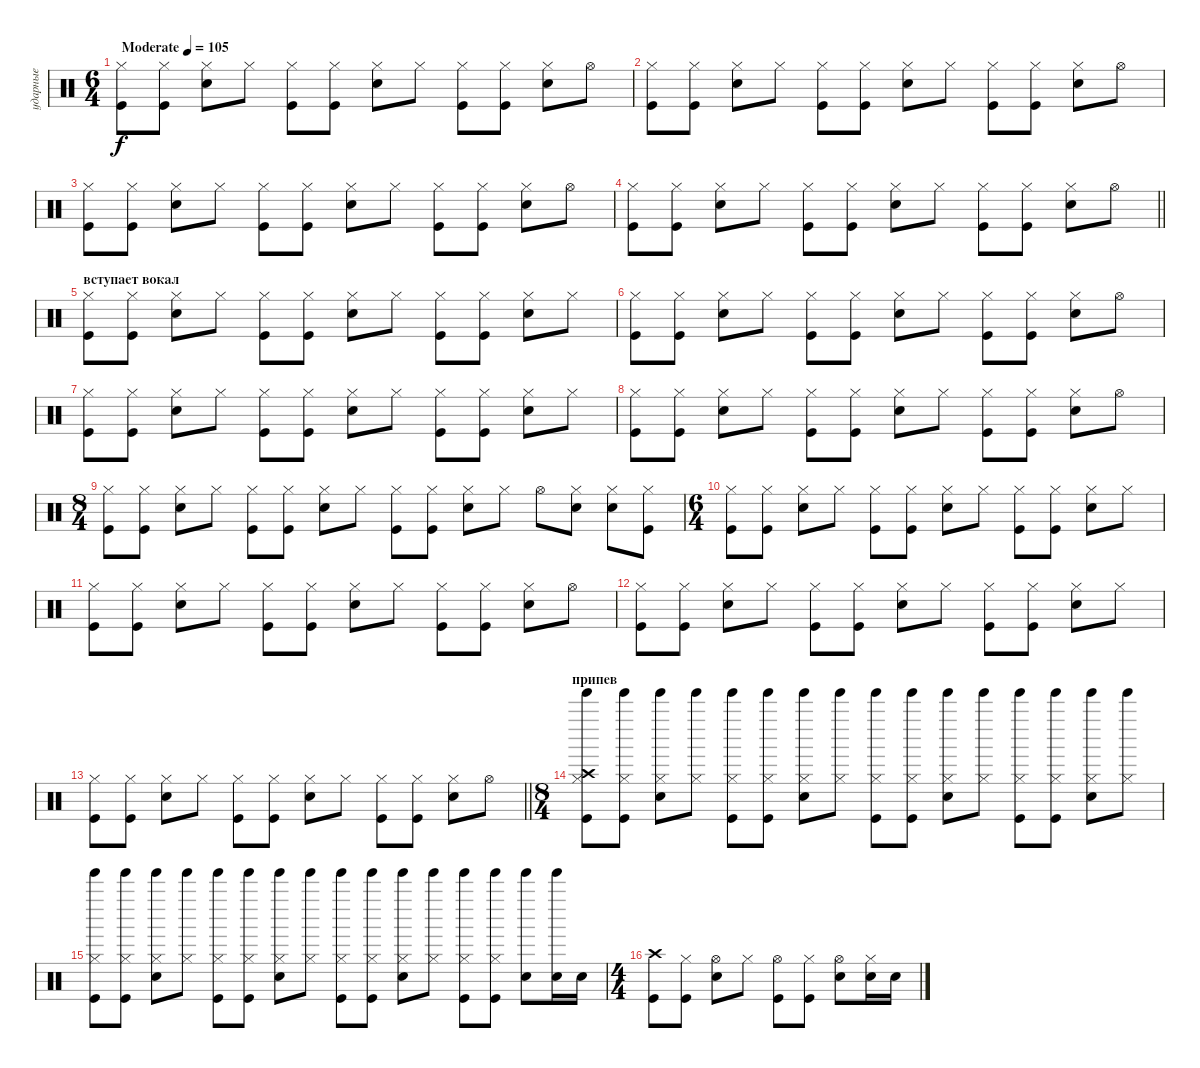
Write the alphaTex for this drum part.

\track ("ударные" "ударные") {instrument percussion}
\staff {score}
\articulation defaults
\ts (6 4)
\tempo (105 "Moderate")
\clef neutral
\ks c
("Hi-Hat (closed)" "Kick (hit)").8{dy f} ("Hi-Hat (closed)" "Kick (hit)").8 ("Hi-Hat (closed)" "Snare (hit) 2").8 "Hi-Hat (closed)".8 ("Hi-Hat (closed)" "Kick (hit)").8 ("Hi-Hat (closed)" "Kick (hit)").8 ("Hi-Hat (closed)" "Snare (hit) 2").8 "Hi-Hat (closed)".8 ("Hi-Hat (closed)" "Kick (hit)").8 ("Hi-Hat (closed)" "Kick (hit)").8 ("Hi-Hat (closed)" "Snare (hit) 2").8 "Hi-Hat (open)".8 |
("Hi-Hat (closed)" "Kick (hit)").8 ("Hi-Hat (closed)" "Kick (hit)").8 ("Hi-Hat (closed)" "Snare (hit) 2").8 "Hi-Hat (closed)".8 ("Hi-Hat (closed)" "Kick (hit)").8 ("Hi-Hat (closed)" "Kick (hit)").8 ("Hi-Hat (closed)" "Snare (hit) 2").8 "Hi-Hat (closed)".8 ("Hi-Hat (closed)" "Kick (hit)").8 ("Hi-Hat (closed)" "Kick (hit)").8 ("Hi-Hat (closed)" "Snare (hit) 2").8 "Hi-Hat (open)".8 |
("Hi-Hat (closed)" "Kick (hit)").8 ("Hi-Hat (closed)" "Kick (hit)").8 ("Hi-Hat (closed)" "Snare (hit) 2").8 "Hi-Hat (closed)".8 ("Hi-Hat (closed)" "Kick (hit)").8 ("Hi-Hat (closed)" "Kick (hit)").8 ("Hi-Hat (closed)" "Snare (hit) 2").8 "Hi-Hat (closed)".8 ("Hi-Hat (closed)" "Kick (hit)").8 ("Hi-Hat (closed)" "Kick (hit)").8 ("Hi-Hat (closed)" "Snare (hit) 2").8 "Hi-Hat (open)".8 |
\barLineRight lightlight
("Hi-Hat (closed)" "Kick (hit)").8 ("Hi-Hat (closed)" "Kick (hit)").8 ("Hi-Hat (closed)" "Snare (hit) 2").8 "Hi-Hat (closed)".8 ("Hi-Hat (closed)" "Kick (hit)").8 ("Hi-Hat (closed)" "Kick (hit)").8 ("Hi-Hat (closed)" "Snare (hit) 2").8 "Hi-Hat (closed)".8 ("Hi-Hat (closed)" "Kick (hit)").8 ("Hi-Hat (closed)" "Kick (hit)").8 ("Hi-Hat (closed)" "Snare (hit) 2").8 "Hi-Hat (open)".8 |
\section ("" "вступает вокал")
("Hi-Hat (closed)" "Kick (hit)").8 ("Hi-Hat (closed)" "Kick (hit)").8 ("Hi-Hat (closed)" "Snare (hit) 2").8 "Hi-Hat (closed)".8 ("Hi-Hat (closed)" "Kick (hit)").8 ("Hi-Hat (closed)" "Kick (hit)").8 ("Hi-Hat (closed)" "Snare (hit) 2").8 "Hi-Hat (closed)".8 ("Hi-Hat (closed)" "Kick (hit)").8 ("Hi-Hat (closed)" "Kick (hit)").8 ("Hi-Hat (closed)" "Snare (hit) 2").8 "Hi-Hat (closed)".8 |
("Hi-Hat (closed)" "Kick (hit)").8 ("Hi-Hat (closed)" "Kick (hit)").8 ("Hi-Hat (closed)" "Snare (hit) 2").8 "Hi-Hat (closed)".8 ("Hi-Hat (closed)" "Kick (hit)").8 ("Hi-Hat (closed)" "Kick (hit)").8 ("Hi-Hat (closed)" "Snare (hit) 2").8 "Hi-Hat (closed)".8 ("Hi-Hat (closed)" "Kick (hit)").8 ("Hi-Hat (closed)" "Kick (hit)").8 ("Hi-Hat (closed)" "Snare (hit) 2").8 "Hi-Hat (open)".8 |
("Hi-Hat (closed)" "Kick (hit)").8 ("Hi-Hat (closed)" "Kick (hit)").8 ("Hi-Hat (closed)" "Snare (hit) 2").8 "Hi-Hat (closed)".8 ("Hi-Hat (closed)" "Kick (hit)").8 ("Hi-Hat (closed)" "Kick (hit)").8 ("Hi-Hat (closed)" "Snare (hit) 2").8 "Hi-Hat (closed)".8 ("Hi-Hat (closed)" "Kick (hit)").8 ("Hi-Hat (closed)" "Kick (hit)").8 ("Hi-Hat (closed)" "Snare (hit) 2").8 "Hi-Hat (closed)".8 |
("Hi-Hat (closed)" "Kick (hit)").8 ("Hi-Hat (closed)" "Kick (hit)").8 ("Hi-Hat (closed)" "Snare (hit) 2").8 "Hi-Hat (closed)".8 ("Hi-Hat (closed)" "Kick (hit)").8 ("Hi-Hat (closed)" "Kick (hit)").8 ("Hi-Hat (closed)" "Snare (hit) 2").8 "Hi-Hat (closed)".8 ("Hi-Hat (closed)" "Kick (hit)").8 ("Hi-Hat (closed)" "Kick (hit)").8 ("Hi-Hat (closed)" "Snare (hit) 2").8 "Hi-Hat (open)".8 |
\ts (8 4)
("Hi-Hat (closed)" "Kick (hit)").8 ("Hi-Hat (closed)" "Kick (hit)").8 ("Hi-Hat (closed)" "Snare (hit) 2").8 "Hi-Hat (closed)".8 ("Hi-Hat (closed)" "Kick (hit)").8 ("Hi-Hat (closed)" "Kick (hit)").8 ("Hi-Hat (closed)" "Snare (hit) 2").8 "Hi-Hat (closed)".8 ("Hi-Hat (closed)" "Kick (hit)").8 ("Hi-Hat (closed)" "Kick (hit)").8 ("Hi-Hat (closed)" "Snare (hit) 2").8 "Hi-Hat (closed)".8 "Hi-Hat (open)".8 ("Hi-Hat (closed)" "Snare (hit) 2").8 ("Hi-Hat (closed)" "Snare (hit) 2").8 ("Hi-Hat (closed)" "Kick (hit)").8 |
\ts (6 4)
("Hi-Hat (closed)" "Kick (hit)").8 ("Hi-Hat (closed)" "Kick (hit)").8 ("Hi-Hat (closed)" "Snare (hit) 2").8 "Hi-Hat (closed)".8 ("Hi-Hat (closed)" "Kick (hit)").8 ("Hi-Hat (closed)" "Kick (hit)").8 ("Hi-Hat (closed)" "Snare (hit) 2").8 "Hi-Hat (closed)".8 ("Hi-Hat (closed)" "Kick (hit)").8 ("Hi-Hat (closed)" "Kick (hit)").8 ("Hi-Hat (closed)" "Snare (hit) 2").8 "Hi-Hat (closed)".8 |
("Hi-Hat (closed)" "Kick (hit)").8 ("Hi-Hat (closed)" "Kick (hit)").8 ("Hi-Hat (closed)" "Snare (hit) 2").8 "Hi-Hat (closed)".8 ("Hi-Hat (closed)" "Kick (hit)").8 ("Hi-Hat (closed)" "Kick (hit)").8 ("Hi-Hat (closed)" "Snare (hit) 2").8 "Hi-Hat (closed)".8 ("Hi-Hat (closed)" "Kick (hit)").8 ("Hi-Hat (closed)" "Kick (hit)").8 ("Hi-Hat (closed)" "Snare (hit) 2").8 "Hi-Hat (open)".8 |
("Hi-Hat (closed)" "Kick (hit)").8 ("Hi-Hat (closed)" "Kick (hit)").8 ("Hi-Hat (closed)" "Snare (hit) 2").8 "Hi-Hat (closed)".8 ("Hi-Hat (closed)" "Kick (hit)").8 ("Hi-Hat (closed)" "Kick (hit)").8 ("Hi-Hat (closed)" "Snare (hit) 2").8 "Hi-Hat (closed)".8 ("Hi-Hat (closed)" "Kick (hit)").8 ("Hi-Hat (closed)" "Kick (hit)").8 ("Hi-Hat (closed)" "Snare (hit) 2").8 "Hi-Hat (closed)".8 |
\barLineRight lightlight
("Hi-Hat (closed)" "Kick (hit)").8 ("Hi-Hat (closed)" "Kick (hit)").8 ("Hi-Hat (closed)" "Snare (hit) 2").8 "Hi-Hat (closed)".8 ("Hi-Hat (closed)" "Kick (hit)").8 ("Hi-Hat (closed)" "Kick (hit)").8 ("Hi-Hat (closed)" "Snare (hit) 2").8 "Hi-Hat (closed)".8 ("Hi-Hat (closed)" "Kick (hit)").8 ("Hi-Hat (closed)" "Kick (hit)").8 ("Hi-Hat (closed)" "Snare (hit) 2").8 "Hi-Hat (open)".8 |
\ts (8 4)
\section ("" "припев")
("Hi-Hat (closed)" "Kick (hit)" "Crash high (hit)" "Tinkle Bell (hit)").8 ("Hi-Hat (closed)" "Kick (hit)" "Tinkle Bell (hit)").8 ("Hi-Hat (closed)" "Snare (hit) 2" "Tinkle Bell (hit)").8 ("Hi-Hat (closed)" "Tinkle Bell (hit)").8 ("Hi-Hat (closed)" "Kick (hit)" "Tinkle Bell (hit)").8 ("Hi-Hat (closed)" "Kick (hit)" "Tinkle Bell (hit)").8 ("Hi-Hat (closed)" "Snare (hit) 2" "Tinkle Bell (hit)").8 ("Hi-Hat (closed)" "Tinkle Bell (hit)").8 ("Hi-Hat (closed)" "Kick (hit)" "Tinkle Bell (hit)").8 ("Hi-Hat (closed)" "Kick (hit)" "Tinkle Bell (hit)").8 ("Hi-Hat (closed)" "Snare (hit) 2" "Tinkle Bell (hit)").8 ("Hi-Hat (closed)" "Tinkle Bell (hit)").8 ("Hi-Hat (closed)" "Kick (hit)" "Tinkle Bell (hit)").8 ("Hi-Hat (closed)" "Kick (hit)" "Tinkle Bell (hit)").8 ("Hi-Hat (closed)" "Snare (hit) 2" "Tinkle Bell (hit)").8 ("Hi-Hat (closed)" "Tinkle Bell (hit)").8 |
("Hi-Hat (closed)" "Kick (hit)" "Tinkle Bell (hit)").8 ("Hi-Hat (closed)" "Kick (hit)" "Tinkle Bell (hit)").8 ("Hi-Hat (closed)" "Snare (hit) 2" "Tinkle Bell (hit)").8 ("Hi-Hat (closed)" "Tinkle Bell (hit)").8 ("Hi-Hat (closed)" "Kick (hit)" "Tinkle Bell (hit)").8 ("Hi-Hat (closed)" "Kick (hit)" "Tinkle Bell (hit)").8 ("Hi-Hat (closed)" "Snare (hit) 2" "Tinkle Bell (hit)").8 ("Hi-Hat (closed)" "Tinkle Bell (hit)").8 ("Hi-Hat (closed)" "Kick (hit)" "Tinkle Bell (hit)").8 ("Hi-Hat (closed)" "Kick (hit)" "Tinkle Bell (hit)").8 ("Hi-Hat (closed)" "Snare (hit) 2" "Tinkle Bell (hit)").8 ("Hi-Hat (closed)" "Tinkle Bell (hit)").8 ("Hi-Hat (closed)" "Kick (hit)" "Tinkle Bell (hit)").8 ("Hi-Hat (closed)" "Kick (hit)" "Tinkle Bell (hit)").8 ("Snare (hit) 2" "Tinkle Bell (hit)").8 ("Snare (hit) 2" "Tinkle Bell (hit)").16 "Snare (hit) 2".16 |
\ts (4 4)
("Crash high (hit)" "Kick (hit)").8 ("Hi-Hat (closed)" "Kick (hit)").8 ("Hi-Hat (open)" "Snare (hit) 2").8 "Hi-Hat (closed)".8 ("Hi-Hat (open)" "Kick (hit)").8 ("Hi-Hat (closed)" "Kick (hit)").8 ("Hi-Hat (open)" "Snare (hit) 2").8 ("Hi-Hat (closed)" "Snare (hit) 2").16 "Snare (hit) 2".16
